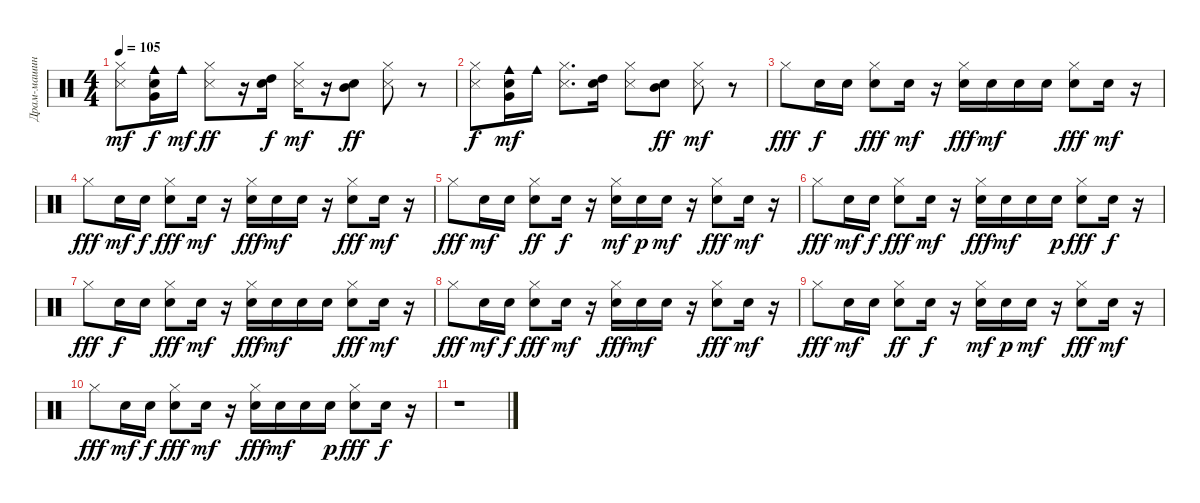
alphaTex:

\track ("Драм-машина" "Драм-машин") {instrument percussion}
\staff {score}
\articulation defaults
\ts (4 4)
\tempo 105
\clef neutral
\ks c
("Metronome (hit)" "Hi-Hat (closed)").8{dy mf} ("Snare (hit) 2" "Cowbell medium (hit)" "Very Low Tom (hit)").16{dy f} "Cowbell medium (hit)".16{dy mf} ("Metronome (hit)" "Hi-Hat (closed)").8{dy ff} r.16 ("High Tom (hit)" "Snare (hit) 2").16{dy f} ("Metronome (hit)" "Hi-Hat (closed)").16{dy mf} r.16 ("Mid Tom (hit)" "Snare (hit) 2").8{dy ff} ("Metronome (hit)" "Hi-Hat (closed)").8 r.8 |
("Metronome (hit)" "Hi-Hat (closed)").8{dy f} ("Snare (hit) 2" "Cowbell medium (hit)" "Very Low Tom (hit)").16{dy mf} "Cowbell medium (hit)".16 ("Metronome (hit)" "Hi-Hat (closed)").8{d} ("Snare (hit) 2" "High Tom (hit)").16 ("Metronome (hit)" "Hi-Hat (closed)").8 ("Snare (hit) 2" "Mid Tom (hit)").8{dy ff} ("Metronome (hit)" "Hi-Hat (closed)").8{dy mf} r.8 |
"Hi-Hat (closed)".8{dy fff} "Snare (hit) 2".16{dy f} "Snare (hit) 2".16 ("Snare (hit) 2" "Hi-Hat (closed)").8{dy fff} "Snare (hit) 2".16{dy mf} r.16 ("Snare (hit) 2" "Hi-Hat (closed)").16{dy fff} "Snare (hit) 2".16{dy mf} "Snare (hit) 2".16 "Snare (hit) 2".16 ("Snare (hit) 2" "Hi-Hat (closed)").8{dy fff} "Snare (hit) 2".16{dy mf} r.16 |
"Hi-Hat (closed)".8{dy fff} "Snare (hit) 2".16{dy mf} "Snare (hit) 2".16{dy f} ("Snare (hit) 2" "Hi-Hat (closed)").8{dy fff} "Snare (hit) 2".16{dy mf} r.16 ("Snare (hit) 2" "Hi-Hat (closed)").16{dy fff} "Snare (hit) 2".16{dy mf} "Snare (hit) 2".16 r.16 ("Snare (hit) 2" "Hi-Hat (closed)").8{dy fff} "Snare (hit) 2".16{dy mf} r.16 |
"Hi-Hat (closed)".8{dy fff} "Snare (hit) 2".16{dy mf} "Snare (hit) 2".16 ("Snare (hit) 2" "Hi-Hat (closed)").8{dy ff} "Snare (hit) 2".16{dy f} r.16 ("Hi-Hat (closed)" "Snare (hit) 2").16{dy mf} "Snare (hit) 2".16{dy p} "Snare (hit) 2".16{dy mf} r.16 ("Snare (hit) 2" "Hi-Hat (closed)").8{dy fff} "Snare (hit) 2".16{dy mf} r.16 |
"Hi-Hat (closed)".8{dy fff} "Snare (hit) 2".16{dy mf} "Snare (hit) 2".16{dy f} ("Snare (hit) 2" "Hi-Hat (closed)").8{dy fff} "Snare (hit) 2".16{dy mf} r.16 ("Snare (hit) 2" "Hi-Hat (closed)").16{dy fff} "Snare (hit) 2".16{dy mf} "Snare (hit) 2".16 "Snare (hit) 2".16{dy p} ("Snare (hit) 2" "Hi-Hat (closed)").8{dy fff} "Snare (hit) 2".16{dy f} r.16 |
"Hi-Hat (closed)".8{dy fff} "Snare (hit) 2".16{dy f} "Snare (hit) 2".16 ("Snare (hit) 2" "Hi-Hat (closed)").8{dy fff} "Snare (hit) 2".16{dy mf} r.16 ("Snare (hit) 2" "Hi-Hat (closed)").16{dy fff} "Snare (hit) 2".16{dy mf} "Snare (hit) 2".16 "Snare (hit) 2".16 ("Snare (hit) 2" "Hi-Hat (closed)").8{dy fff} "Snare (hit) 2".16{dy mf} r.16 |
"Hi-Hat (closed)".8{dy fff} "Snare (hit) 2".16{dy mf} "Snare (hit) 2".16{dy f} ("Snare (hit) 2" "Hi-Hat (closed)").8{dy fff} "Snare (hit) 2".16{dy mf} r.16 ("Snare (hit) 2" "Hi-Hat (closed)").16{dy fff} "Snare (hit) 2".16{dy mf} "Snare (hit) 2".16 r.16 ("Snare (hit) 2" "Hi-Hat (closed)").8{dy fff} "Snare (hit) 2".16{dy mf} r.16 |
"Hi-Hat (closed)".8{dy fff} "Snare (hit) 2".16{dy mf} "Snare (hit) 2".16 ("Snare (hit) 2" "Hi-Hat (closed)").8{dy ff} "Snare (hit) 2".16{dy f} r.16 ("Hi-Hat (closed)" "Snare (hit) 2").16{dy mf} "Snare (hit) 2".16{dy p} "Snare (hit) 2".16{dy mf} r.16 ("Snare (hit) 2" "Hi-Hat (closed)").8{dy fff} "Snare (hit) 2".16{dy mf} r.16 |
"Hi-Hat (closed)".8{dy fff} "Snare (hit) 2".16{dy mf} "Snare (hit) 2".16{dy f} ("Snare (hit) 2" "Hi-Hat (closed)").8{dy fff} "Snare (hit) 2".16{dy mf} r.16 ("Snare (hit) 2" "Hi-Hat (closed)").16{dy fff} "Snare (hit) 2".16{dy mf} "Snare (hit) 2".16 "Snare (hit) 2".16{dy p} ("Snare (hit) 2" "Hi-Hat (closed)").8{dy fff} "Snare (hit) 2".16{dy f} r.16 |
r.1
